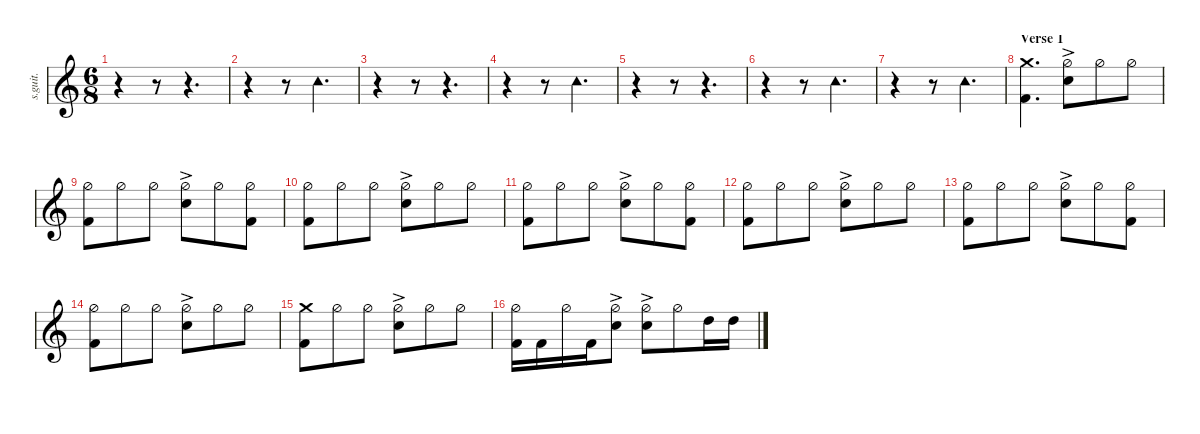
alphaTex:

\defaultSystemsLayout 4
\hideDynamics
\bracketExtendMode nobrackets
\track ("Lars Ulrich - Drums" "s.guit.") {instrument percussion}
\staff {score}
\articulation defaults
\ts (6 8)
\tempo (71 hide)
\clef g2
\ks c
r.4{dy mf} r.8 r.4{d} |
r.4 r.8 "Tambourine (hit)".4{d lyrics (0 "") lyrics (1 "") lyrics (2 "") lyrics (3 "") lyrics (4 "")} |
r.4 r.8 r.4{d} |
r.4 r.8 "Tambourine (hit)".4{d lyrics (0 "") lyrics (1 "") lyrics (2 "") lyrics (3 "") lyrics (4 "") dy ff} |
r.4 r.8 r.4{d} |
r.4 r.8 "Tambourine (hit)".4{d lyrics (0 "") lyrics (1 "") lyrics (2 "") lyrics (3 "") lyrics (4 "")} |
r.4 r.8 "Tambourine (hit)".4{d lyrics (0 "") lyrics (1 "") lyrics (2 "") lyrics (3 "") lyrics (4 "")} |
\section ("" "Verse 1")
("Crash medium (hit)" "Kick (hit) 2").4{d lyrics (0 "") lyrics (1 "") lyrics (2 "") lyrics (3 "") lyrics (4 "")} ("Hi-Hat (half)"{ac} "Snare (hit) 2"{ac}).8{lyrics (0 "") lyrics (1 "") lyrics (2 "") lyrics (3 "") lyrics (4 "")} "Hi-Hat (half)".8{lyrics (0 "") lyrics (1 "") lyrics (2 "") lyrics (3 "") lyrics (4 "")} "Hi-Hat (half)".8{lyrics (0 "") lyrics (1 "") lyrics (2 "") lyrics (3 "") lyrics (4 "")} |
("Hi-Hat (half)" "Kick (hit) 2").8{lyrics (0 "") lyrics (1 "") lyrics (2 "") lyrics (3 "") lyrics (4 "")} "Hi-Hat (half)".8{lyrics (0 "") lyrics (1 "") lyrics (2 "") lyrics (3 "") lyrics (4 "")} "Hi-Hat (half)".8{lyrics (0 "") lyrics (1 "") lyrics (2 "") lyrics (3 "") lyrics (4 "")} ("Hi-Hat (half)"{ac} "Snare (hit) 2"{ac}).8{lyrics (0 "") lyrics (1 "") lyrics (2 "") lyrics (3 "") lyrics (4 "")} "Hi-Hat (half)".8{lyrics (0 "") lyrics (1 "") lyrics (2 "") lyrics (3 "") lyrics (4 "")} ("Hi-Hat (half)" "Kick (hit) 2").8{lyrics (0 "") lyrics (1 "") lyrics (2 "") lyrics (3 "") lyrics (4 "")} |
("Hi-Hat (half)" "Kick (hit) 2").8{lyrics (0 "") lyrics (1 "") lyrics (2 "") lyrics (3 "") lyrics (4 "")} "Hi-Hat (half)".8{lyrics (0 "") lyrics (1 "") lyrics (2 "") lyrics (3 "") lyrics (4 "")} "Hi-Hat (half)".8{lyrics (0 "") lyrics (1 "") lyrics (2 "") lyrics (3 "") lyrics (4 "")} ("Hi-Hat (half)"{ac} "Snare (hit) 2"{ac}).8{lyrics (0 "") lyrics (1 "") lyrics (2 "") lyrics (3 "") lyrics (4 "")} "Hi-Hat (half)".8{lyrics (0 "") lyrics (1 "") lyrics (2 "") lyrics (3 "") lyrics (4 "")} "Hi-Hat (half)".8{lyrics (0 "") lyrics (1 "") lyrics (2 "") lyrics (3 "") lyrics (4 "")} |
("Hi-Hat (half)" "Kick (hit) 2").8{lyrics (0 "") lyrics (1 "") lyrics (2 "") lyrics (3 "") lyrics (4 "")} "Hi-Hat (half)".8{lyrics (0 "") lyrics (1 "") lyrics (2 "") lyrics (3 "") lyrics (4 "")} "Hi-Hat (half)".8{lyrics (0 "") lyrics (1 "") lyrics (2 "") lyrics (3 "") lyrics (4 "")} ("Hi-Hat (half)"{ac} "Snare (hit) 2"{ac}).8{lyrics (0 "") lyrics (1 "") lyrics (2 "") lyrics (3 "") lyrics (4 "")} "Hi-Hat (half)".8{lyrics (0 "") lyrics (1 "") lyrics (2 "") lyrics (3 "") lyrics (4 "")} ("Hi-Hat (half)" "Kick (hit) 2").8{lyrics (0 "") lyrics (1 "") lyrics (2 "") lyrics (3 "") lyrics (4 "")} |
("Kick (hit) 2" "Hi-Hat (half)").8{lyrics (0 "") lyrics (1 "") lyrics (2 "") lyrics (3 "") lyrics (4 "")} "Hi-Hat (half)".8{lyrics (0 "") lyrics (1 "") lyrics (2 "") lyrics (3 "") lyrics (4 "")} "Hi-Hat (half)".8{lyrics (0 "") lyrics (1 "") lyrics (2 "") lyrics (3 "") lyrics (4 "")} ("Hi-Hat (half)"{ac} "Snare (hit) 2"{ac}).8{lyrics (0 "") lyrics (1 "") lyrics (2 "") lyrics (3 "") lyrics (4 "")} "Hi-Hat (half)".8{lyrics (0 "") lyrics (1 "") lyrics (2 "") lyrics (3 "") lyrics (4 "")} "Hi-Hat (half)".8{lyrics (0 "") lyrics (1 "") lyrics (2 "") lyrics (3 "") lyrics (4 "")} |
("Kick (hit) 2" "Hi-Hat (half)").8{lyrics (0 "") lyrics (1 "") lyrics (2 "") lyrics (3 "") lyrics (4 "")} "Hi-Hat (half)".8{lyrics (0 "") lyrics (1 "") lyrics (2 "") lyrics (3 "") lyrics (4 "")} "Hi-Hat (half)".8{lyrics (0 "") lyrics (1 "") lyrics (2 "") lyrics (3 "") lyrics (4 "")} ("Hi-Hat (half)"{ac} "Snare (hit) 2"{ac}).8{lyrics (0 "") lyrics (1 "") lyrics (2 "") lyrics (3 "") lyrics (4 "")} "Hi-Hat (half)".8{lyrics (0 "") lyrics (1 "") lyrics (2 "") lyrics (3 "") lyrics (4 "")} ("Hi-Hat (half)" "Kick (hit) 2").8{lyrics (0 "") lyrics (1 "") lyrics (2 "") lyrics (3 "") lyrics (4 "")} |
("Kick (hit) 2" "Hi-Hat (half)").8{lyrics (0 "") lyrics (1 "") lyrics (2 "") lyrics (3 "") lyrics (4 "")} "Hi-Hat (half)".8{lyrics (0 "") lyrics (1 "") lyrics (2 "") lyrics (3 "") lyrics (4 "")} "Hi-Hat (half)".8{lyrics (0 "") lyrics (1 "") lyrics (2 "") lyrics (3 "") lyrics (4 "")} ("Hi-Hat (half)"{ac} "Snare (hit) 2"{ac}).8{lyrics (0 "") lyrics (1 "") lyrics (2 "") lyrics (3 "") lyrics (4 "")} "Hi-Hat (half)".8{lyrics (0 "") lyrics (1 "") lyrics (2 "") lyrics (3 "") lyrics (4 "")} "Hi-Hat (half)".8{lyrics (0 "") lyrics (1 "") lyrics (2 "") lyrics (3 "") lyrics (4 "")} |
("Crash medium (hit)" "Kick (hit) 2").8{lyrics (0 "") lyrics (1 "") lyrics (2 "") lyrics (3 "") lyrics (4 "")} "Hi-Hat (half)".8{lyrics (0 "") lyrics (1 "") lyrics (2 "") lyrics (3 "") lyrics (4 "")} "Hi-Hat (half)".8{lyrics (0 "") lyrics (1 "") lyrics (2 "") lyrics (3 "") lyrics (4 "")} ("Hi-Hat (half)"{ac} "Snare (hit) 2"{ac}).8{lyrics (0 "") lyrics (1 "") lyrics (2 "") lyrics (3 "") lyrics (4 "")} "Hi-Hat (half)".8{lyrics (0 "") lyrics (1 "") lyrics (2 "") lyrics (3 "") lyrics (4 "")} "Hi-Hat (half)".8{lyrics (0 "") lyrics (1 "") lyrics (2 "") lyrics (3 "") lyrics (4 "")} |
("Hi-Hat (half)" "Kick (hit) 2").16{lyrics (0 "") lyrics (1 "") lyrics (2 "") lyrics (3 "") lyrics (4 "")} "Kick (hit) 2".16{lyrics (0 "") lyrics (1 "") lyrics (2 "") lyrics (3 "") lyrics (4 "")} "Hi-Hat (half)".16{lyrics (0 "") lyrics (1 "") lyrics (2 "") lyrics (3 "") lyrics (4 "")} "Kick (hit) 2".16{lyrics (0 "") lyrics (1 "") lyrics (2 "") lyrics (3 "") lyrics (4 "")} ("Hi-Hat (half)"{ac} "Snare (hit) 2"{ac}).8{lyrics (0 "") lyrics (1 "") lyrics (2 "") lyrics (3 "") lyrics (4 "")} ("Hi-Hat (half)"{ac} "Snare (hit) 2"{ac}).8{lyrics (0 "") lyrics (1 "") lyrics (2 "") lyrics (3 "") lyrics (4 "")} "Hi-Hat (half)".8{lyrics (0 "") lyrics (1 "") lyrics (2 "") lyrics (3 "") lyrics (4 "")} "High Tom (hit)".16{lyrics (0 "") lyrics (1 "") lyrics (2 "") lyrics (3 "") lyrics (4 "")} "High Tom (hit)".16{lyrics (0 "") lyrics (1 "") lyrics (2 "") lyrics (3 "") lyrics (4 "")}
